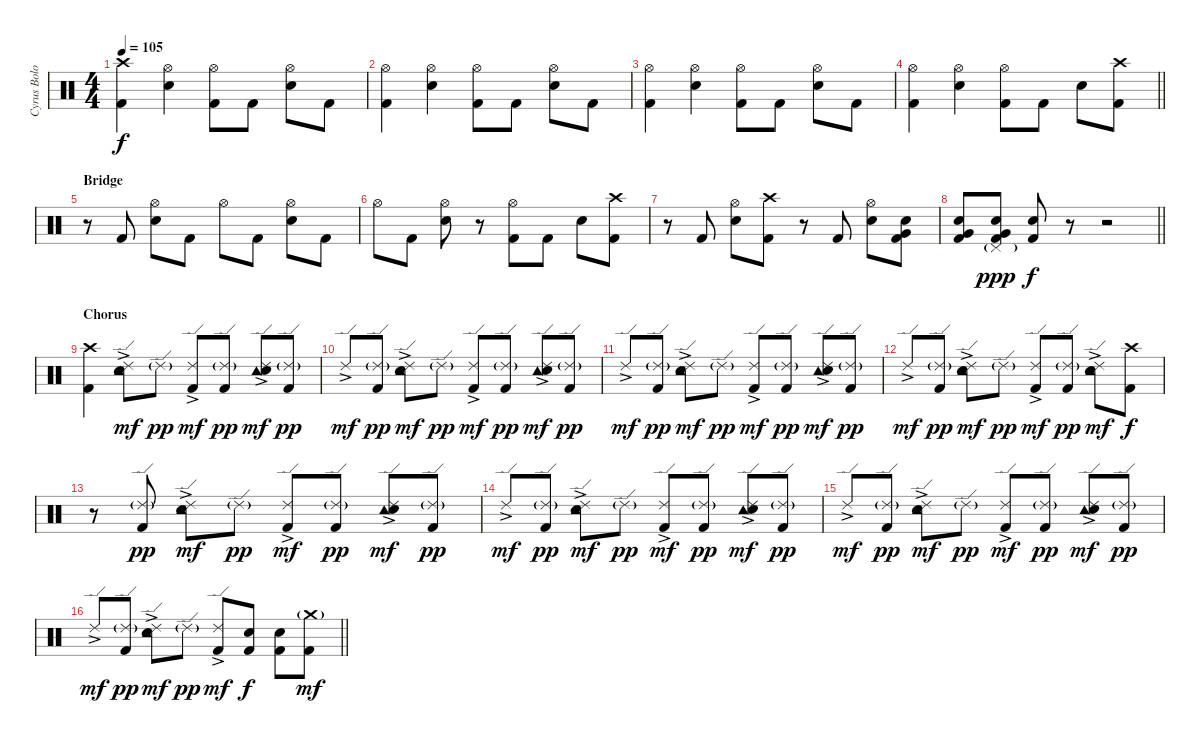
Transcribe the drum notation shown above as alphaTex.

\track ("Cyrus Bolooki" "Cyrus Bolo") {instrument percussion}
\staff {score}
\articulation defaults
\ts (4 4)
\tempo 105
\clef neutral
\ks c
("Crash high (hit)" "Kick (hit) 2").4{dy f} ("Hi-Hat (open)" "Electric Snare (hit)").4 ("Hi-Hat (open)" "Kick (hit) 2").8 "Kick (hit) 2".8 ("Hi-Hat (open)" "Electric Snare (hit)").8 "Kick (hit) 2".8 |
("Hi-Hat (open)" "Kick (hit) 2").4 ("Hi-Hat (open)" "Electric Snare (hit)").4 ("Hi-Hat (open)" "Kick (hit) 2").8 "Kick (hit) 2".8 ("Hi-Hat (open)" "Electric Snare (hit)").8 "Kick (hit) 2".8 |
("Hi-Hat (open)" "Kick (hit) 2").4 ("Hi-Hat (open)" "Electric Snare (hit)").4 ("Hi-Hat (open)" "Kick (hit) 2").8 "Kick (hit) 2".8 ("Hi-Hat (open)" "Electric Snare (hit)").8 "Kick (hit) 2".8 |
\barLineRight lightlight
("Hi-Hat (open)" "Kick (hit) 2").4 ("Hi-Hat (open)" "Electric Snare (hit)").4 ("Hi-Hat (open)" "Kick (hit) 2").8 "Kick (hit) 2".8 "Electric Snare (hit)".8 ("Crash high (hit)" "Kick (hit) 2").8 |
\section ("" "Bridge")
r.8 "Kick (hit) 2".8 ("Hi-Hat (open)" "Electric Snare (hit)").8 "Kick (hit) 2".8 "Hi-Hat (open)".8 "Kick (hit) 2".8 ("Hi-Hat (open)" "Electric Snare (hit)").8 "Kick (hit) 2".8 |
"Hi-Hat (open)".8 "Kick (hit) 2".8 ("Hi-Hat (open)" "Electric Snare (hit)").8 r.8 ("Hi-Hat (open)" "Kick (hit) 2").8 "Kick (hit) 2".8 "Electric Snare (hit)".8 ("Crash high (hit)" "Kick (hit) 2").8 |
r.8 "Kick (hit) 2".8 ("Hi-Hat (open)" "Electric Snare (hit)").8 ("Crash high (hit)" "Kick (hit) 2").8 r.8 "Kick (hit) 2".8 ("Hi-Hat (open)" "Electric Snare (hit)").8 ("Very Low Tom (hit)" "Electric Snare (hit)" "Kick (hit) 2").8 |
\barLineRight lightlight
("Very Low Tom (hit)" "Electric Snare (hit)" "Kick (hit) 2").8 ("Pedal Hi-Hat (hit)"{g} "Very Low Tom (hit)" "Electric Snare (hit)" "Kick (hit) 2").8{dy ppp} ("Electric Snare (hit)" "Kick (hit) 2").8{dy f} r.8 r.2 |
\section ("" "Chorus")
("Crash high (hit)" "Kick (hit) 2").4 ("Ride (edge) 2"{ac} "Tambourine (hit)" "Electric Snare (hit)").8{dy mf} "Ride (edge) 2"{g}.8{dy pp} ("Ride (edge) 2"{ac} "Kick (hit) 2").8{dy mf} ("Ride (edge) 2"{g} "Kick (hit) 2").8{dy pp} ("Ride (edge) 2"{ac} "Tambourine (hit)" "Electric Snare (hit)").8{dy mf} ("Ride (edge) 2"{g} "Kick (hit) 2").8{dy pp} |
"Ride (edge) 2"{ac}.8{dy mf} ("Ride (edge) 2"{g} "Kick (hit) 2").8{dy pp} ("Ride (edge) 2"{ac} "Tambourine (hit)" "Electric Snare (hit)").8{dy mf} "Ride (edge) 2"{g}.8{dy pp} ("Ride (edge) 2"{ac} "Kick (hit) 2").8{dy mf} ("Ride (edge) 2"{g} "Kick (hit) 2").8{dy pp} ("Ride (edge) 2"{ac} "Tambourine (hit)" "Electric Snare (hit)").8{dy mf} ("Ride (edge) 2"{g} "Kick (hit) 2").8{dy pp} |
"Ride (edge) 2"{ac}.8{dy mf} ("Ride (edge) 2"{g} "Kick (hit) 2").8{dy pp} ("Ride (edge) 2"{ac} "Tambourine (hit)" "Electric Snare (hit)").8{dy mf} "Ride (edge) 2"{g}.8{dy pp} ("Ride (edge) 2"{ac} "Kick (hit) 2").8{dy mf} ("Ride (edge) 2"{g} "Kick (hit) 2").8{dy pp} ("Ride (edge) 2"{ac} "Tambourine (hit)" "Electric Snare (hit)").8{dy mf} ("Ride (edge) 2"{g} "Kick (hit) 2").8{dy pp} |
"Ride (edge) 2"{ac}.8{dy mf} ("Ride (edge) 2"{g} "Kick (hit) 2").8{dy pp} ("Ride (edge) 2"{ac} "Tambourine (hit)" "Electric Snare (hit)").8{dy mf} "Ride (edge) 2"{g}.8{dy pp} ("Ride (edge) 2"{ac} "Kick (hit) 2").8{dy mf} ("Ride (edge) 2"{g} "Kick (hit) 2").8{dy pp} ("Ride (edge) 2"{ac} "Tambourine (hit)" "Electric Snare (hit)").8{dy mf} ("Crash high (hit)" "Kick (hit) 2").8{dy f} |
r.8 ("Ride (edge) 2"{g} "Kick (hit) 2").8{dy pp} ("Ride (edge) 2"{ac} "Tambourine (hit)" "Electric Snare (hit)").8{dy mf} "Ride (edge) 2"{g}.8{dy pp} ("Ride (edge) 2"{ac} "Kick (hit) 2").8{dy mf} ("Ride (edge) 2"{g} "Kick (hit) 2").8{dy pp} ("Ride (edge) 2"{ac} "Tambourine (hit)" "Electric Snare (hit)").8{dy mf} ("Ride (edge) 2"{g} "Kick (hit) 2").8{dy pp} |
"Ride (edge) 2"{ac}.8{dy mf} ("Ride (edge) 2"{g} "Kick (hit) 2").8{dy pp} ("Ride (edge) 2"{ac} "Tambourine (hit)" "Electric Snare (hit)").8{dy mf} "Ride (edge) 2"{g}.8{dy pp} ("Ride (edge) 2"{ac} "Kick (hit) 2").8{dy mf} ("Ride (edge) 2"{g} "Kick (hit) 2").8{dy pp} ("Ride (edge) 2"{ac} "Tambourine (hit)" "Electric Snare (hit)").8{dy mf} ("Ride (edge) 2"{g} "Kick (hit) 2").8{dy pp} |
"Ride (edge) 2"{ac}.8{dy mf} ("Ride (edge) 2"{g} "Kick (hit) 2").8{dy pp} ("Ride (edge) 2"{ac} "Tambourine (hit)" "Electric Snare (hit)").8{dy mf} "Ride (edge) 2"{g}.8{dy pp} ("Ride (edge) 2"{ac} "Kick (hit) 2").8{dy mf} ("Ride (edge) 2"{g} "Kick (hit) 2").8{dy pp} ("Ride (edge) 2"{ac} "Tambourine (hit)" "Electric Snare (hit)").8{dy mf} ("Ride (edge) 2"{g} "Kick (hit) 2").8{dy pp} |
\barLineRight lightlight "Ride (edge) 2"{ac}.8{dy mf}
("Ride (edge) 2"{g} "Kick (hit) 2").8{dy pp} ("Ride (edge) 2"{ac} "Tambourine (hit)" "Electric Snare (hit)").8{dy mf} "Ride (edge) 2"{g}.8{dy pp} ("Ride (edge) 2"{ac} "Kick (hit) 2").8{dy mf} ("Electric Snare (hit)" "Kick (hit) 2").8{dy f} ("Electric Snare (hit)" "Kick (hit) 2").8 ("Crash medium (hit)"{g} "Kick (hit) 2").8{dy mf}
